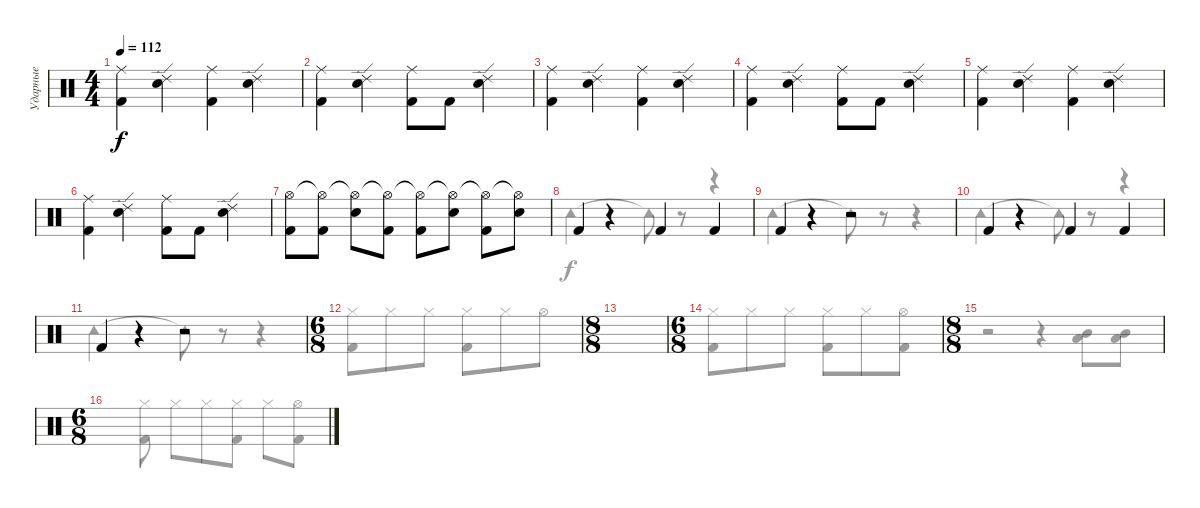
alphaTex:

\track ("Ударные" "Ударные") {instrument percussion}
\staff {score}
\articulation defaults
\voice
\ts (4 4)
\tempo 112
\clef neutral
\ks c
("Ride (middle)" "Kick (hit) 2").4{dy f} ("Ride (edge) 2" "Snare (hit) 2").4 ("Ride (middle)" "Kick (hit) 2").4 ("Ride (edge) 2" "Snare (hit) 2").4 |
("Ride (middle)" "Kick (hit) 2").4 ("Ride (edge) 2" "Snare (hit) 2").4 ("Ride (middle)" "Kick (hit) 2").8 "Kick (hit) 2".8 ("Ride (edge) 2" "Snare (hit) 2").4 |
("Ride (middle)" "Kick (hit) 2").4 ("Ride (edge) 2" "Snare (hit) 2").4 ("Ride (middle)" "Kick (hit) 2").4 ("Ride (edge) 2" "Snare (hit) 2").4 |
("Ride (middle)" "Kick (hit) 2").4 ("Ride (edge) 2" "Snare (hit) 2").4 ("Ride (middle)" "Kick (hit) 2").8 "Kick (hit) 2".8 ("Ride (edge) 2" "Snare (hit) 2").4 |
("Ride (middle)" "Kick (hit) 2").4 ("Ride (edge) 2" "Snare (hit) 2").4 ("Ride (middle)" "Kick (hit) 2").4 ("Ride (edge) 2" "Snare (hit) 2").4 |
("Ride (middle)" "Kick (hit) 2").4 ("Ride (edge) 2" "Snare (hit) 2").4 ("Ride (middle)" "Kick (hit) 2").8 "Kick (hit) 2".8 ("Ride (edge) 2" "Snare (hit) 2").4 |
("Hi-Hat (open)" "Kick (hit) 2").8 ("Hi-Hat (open)"{t} "Kick (hit) 2").8 ("Hi-Hat (open)"{t} "Snare (hit) 2").8 ("Hi-Hat (open)"{t} "Kick (hit) 2").8 ("Hi-Hat (open)"{t} "Kick (hit) 2").8 ("Hi-Hat (open)"{t} "Snare (hit) 2").8 ("Hi-Hat (open)"{t} "Kick (hit) 2").8 ("Hi-Hat (open)"{t} "Snare (hit) 2").8 |
"Kick (hit) 2".4 r.4 "Kick (hit) 2".4 "Kick (hit) 2".4 |
"Kick (hit) 2".4 r.4 r.2 |
"Kick (hit) 2".4 r.4 "Kick (hit) 2".4 "Kick (hit) 2".4 |
"Kick (hit) 2".4 r.4 r.2 |
\ts (6 8)
|
\ts (8 8)
|
\ts (6 8)
|
\ts (8 8)
|
\ts (6 8)
\voice
\clef neutral
\ottava regular
\simile none
\ks c
|
|
|
|
|
|
|
"Tambourine (hit)".2 "Tambourine (hit)"{t}.8 r.8 r.4 |
"Tambourine (hit)".2 "Tambourine (hit)"{t}.8 r.8 r.4 |
"Tambourine (hit)".2 "Tambourine (hit)"{t}.8 r.8 r.4 |
"Tambourine (hit)".2 "Tambourine (hit)"{t}.8 r.8 r.4 |
("Hi-Hat (closed)" "Kick (hit) 2").8 "Hi-Hat (closed)".8 "Hi-Hat (closed)".8 ("Hi-Hat (closed)" "Kick (hit) 2").8 "Hi-Hat (closed)".8 "Hi-Hat (open)".8 |
|
("Hi-Hat (closed)" "Kick (hit) 2").8 "Hi-Hat (closed)".8 "Hi-Hat (closed)".8 ("Hi-Hat (closed)" "Kick (hit) 2").8 "Hi-Hat (closed)".8 ("Hi-Hat (open)" "Kick (hit) 2").8 |
r.2 r.4 ("Mid Tom (hit)" "Low Tom (hit)").8 ("Mid Tom (hit)" "Low Floor Tom (hit)").8 |
("Hi-Hat (closed)" "Kick (hit) 2").8 "Hi-Hat (closed)".8 "Hi-Hat (closed)".8 ("Hi-Hat (closed)" "Kick (hit) 2").8 "Hi-Hat (closed)".8 ("Hi-Hat (open)" "Kick (hit) 2").8
